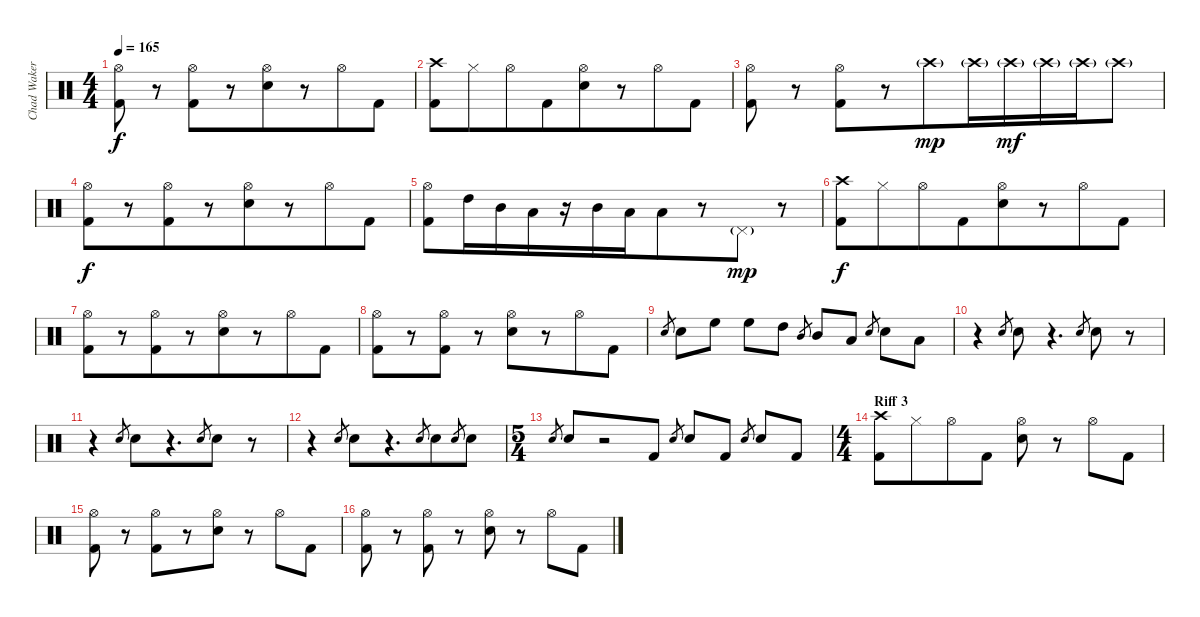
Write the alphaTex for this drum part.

\track ("Chad Wakerman - Percussion" "Chad Waker") {instrument percussion}
\staff {score}
\articulation defaults
\ts (4 4)
\tempo 165
\clef neutral
\ks c
("Hi-Hat (open)" "Kick (hit) 2").8{dy f} r.8{beam merge} ("Hi-Hat (open)" "Kick (hit) 2").8{beam merge} r.8 ("Hi-Hat (open)" "Electric Snare (hit)").8{beam merge} r.8{beam merge} "Hi-Hat (open)".8{beam merge} "Kick (hit) 2".8 |
("Crash high (hit)" "Kick (hit) 2").8{beam merge} "Hi-Hat (closed)".8{beam merge} "Hi-Hat (open)".8{beam merge} "Kick (hit) 2".8{beam merge} ("Hi-Hat (open)" "Electric Snare (hit)").8{beam merge} r.8{beam merge} "Hi-Hat (open)".8{beam merge} "Kick (hit) 2".8 |
("Hi-Hat (open)" "Kick (hit) 2").8 r.8{beam merge} ("Hi-Hat (open)" "Kick (hit) 2").8{beam merge} r.8{beam merge} "Crash high (hit)"{g}.8{dy mp beam merge} "Crash high (hit)"{g}.16{beam merge} "Crash high (hit)"{g}.16{dy mf beam merge} "Crash high (hit)"{g}.16{beam merge} "Crash high (hit)"{g}.16{beam merge} "Crash high (hit)"{g}.8 |
("Hi-Hat (open)" "Kick (hit) 2").8{dy f beam merge} r.8{beam merge} ("Hi-Hat (open)" "Kick (hit) 2").8{beam merge} r.8{beam merge} ("Hi-Hat (open)" "Electric Snare (hit)").8{beam merge} r.8{beam merge} "Hi-Hat (open)".8{beam merge} "Kick (hit) 2".8 |
("Hi-Hat (open)" "Kick (hit) 2").8{beam merge} "High Tom (hit)".16{beam merge} "Mid Tom (hit)".16{beam merge} "Low Tom (hit)".16{beam merge} r.16{beam merge} "Mid Tom (hit)".16{beam merge} "Low Tom (hit)".16{beam merge} "Low Floor Tom (hit)".8{beam merge} r.8 "Pedal Hi-Hat (hit)"{g}.8{dy mp beam merge} r.8 |
("Crash high (hit)" "Kick (hit) 2").8{dy f beam merge} "Hi-Hat (closed)".8{beam merge} "Hi-Hat (open)".8 "Kick (hit) 2".8{beam merge} ("Hi-Hat (open)" "Electric Snare (hit)").8{beam merge} r.8{beam merge} "Hi-Hat (open)".8{beam merge} "Kick (hit) 2".8 |
("Hi-Hat (open)" "Kick (hit) 2").8{beam merge} r.8{beam merge} ("Hi-Hat (open)" "Kick (hit) 2").8{beam merge} r.8{beam merge} ("Hi-Hat (open)" "Electric Snare (hit)").8{beam merge} r.8{beam merge} "Hi-Hat (open)".8{beam merge} "Kick (hit) 2".8 |
("Hi-Hat (open)" "Kick (hit) 2").8{beam merge} r.8{beam merge} ("Hi-Hat (open)" "Kick (hit) 2").8 r.8{beam merge} ("Hi-Hat (open)" "Electric Snare (hit)").8{beam merge} r.8 "Hi-Hat (open)".8 "Kick (hit) 2".8 |
"Electric Snare (hit)".8{gr} "Electric Snare (hit)".8{beam merge} "High Floor Tom (hit)".8 "High Floor Tom (hit)".8{beam merge} "High Tom (hit)".8 "Mid Tom (hit)".8{gr beam merge} "Mid Tom (hit)".8{beam merge} "Low Tom (hit)".8 "Electric Snare (hit)".8{gr beam merge} "Electric Snare (hit)".8 "Low Floor Tom (hit)".8 |
r.4 "Electric Snare (hit)".8{gr} "Electric Snare (hit)".8 r.4{d} "Electric Snare (hit)".8{gr beam merge} "Electric Snare (hit)".8 r.8 |
r.4 "Electric Snare (hit)".8{gr beam merge} "Electric Snare (hit)".8{beam merge} r.4{d} "Electric Snare (hit)".8{gr} "Electric Snare (hit)".8 r.8 |
r.4 "Electric Snare (hit)".8{gr beam merge} "Electric Snare (hit)".8{beam merge} r.4{d} "Electric Snare (hit)".8{gr} "Electric Snare (hit)".8 "Electric Snare (hit)".8{gr beam merge} "Electric Snare (hit)".8 |
\ts (5 4)
"Electric Snare (hit)".8{gr beam merge} "Electric Snare (hit)".8{beam merge} r.2 "Kick (hit) 2".8 "Electric Snare (hit)".8{gr beam merge} "Electric Snare (hit)".8 "Kick (hit) 2".8 "Electric Snare (hit)".8{gr} "Electric Snare (hit)".8{beam merge} "Kick (hit) 2".8 |
\ts (4 4)
\section ("" "Riff 3")
("Crash high (hit)" "Kick (hit) 2").8 "Hi-Hat (closed)".8{beam merge} "Hi-Hat (open)".8 "Kick (hit) 2".8 ("Hi-Hat (open)" "Electric Snare (hit)").8 r.8 "Hi-Hat (open)".8{beam merge} "Kick (hit) 2".8 |
("Hi-Hat (open)" "Kick (hit) 2").8 r.8{beam merge} ("Hi-Hat (open)" "Kick (hit) 2").8{beam merge} r.8{beam merge} ("Hi-Hat (open)" "Electric Snare (hit)").8 r.8{beam merge} "Hi-Hat (open)".8{beam merge} "Kick (hit) 2".8 |
("Hi-Hat (open)" "Kick (hit) 2").8 r.8 ("Hi-Hat (open)" "Kick (hit) 2").8 r.8 ("Hi-Hat (open)" "Electric Snare (hit)").8 r.8 "Hi-Hat (open)".8 "Kick (hit) 2".8
